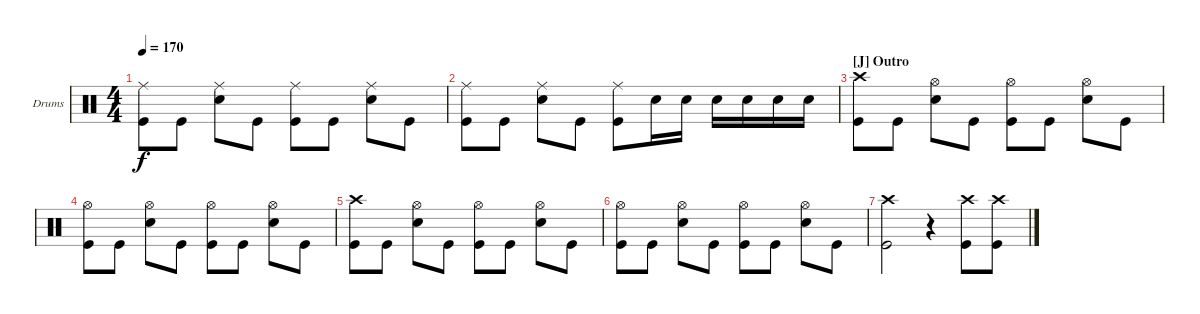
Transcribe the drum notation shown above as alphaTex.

\defaultSystemsLayout 4
\bracketExtendMode groupsimilarinstruments
\firstSystemTrackNameOrientation horizontal
\otherSystemsTrackNameOrientation horizontal
\track ("Benny Horowitz" "Drums") {instrument percussion}
\staff {score}
\articulation defaults
\ts (4 4)
\tempo 170
\clef neutral
\ks c
("Kick (hit)" "Ride (middle)").8{dy f} "Kick (hit)".8 ("Snare (hit) 2" "Ride (middle)").8 "Kick (hit)".8 ("Kick (hit)" "Ride (middle)").8 "Kick (hit)".8 ("Snare (hit) 2" "Ride (middle)").8 "Kick (hit)".8 |
("Kick (hit)" "Ride (middle)").8 "Kick (hit)".8 ("Snare (hit) 2" "Ride (middle)").8 "Kick (hit)".8 ("Kick (hit)" "Ride (middle)").8 "Snare (hit) 2".16 "Snare (hit) 2".16 "Snare (hit) 2".16 "Snare (hit) 2".16 "Snare (hit) 2".16 "Snare (hit) 2".16 |
\section ("J" "Outro")
("Kick (hit)" "Crash high (hit)").8 "Kick (hit)".8 ("Snare (hit) 2" "Hi-Hat (open)").8 "Kick (hit)".8 ("Kick (hit)" "Hi-Hat (open)").8 "Kick (hit)".8 ("Snare (hit) 2" "Hi-Hat (open)").8 "Kick (hit)".8 |
("Kick (hit)" "Hi-Hat (open)").8 "Kick (hit)".8 ("Snare (hit) 2" "Hi-Hat (open)").8 "Kick (hit)".8 ("Kick (hit)" "Hi-Hat (open)").8 "Kick (hit)".8 ("Snare (hit) 2" "Hi-Hat (open)").8 "Kick (hit)".8 |
("Kick (hit)" "Crash high (hit)").8 "Kick (hit)".8 ("Snare (hit) 2" "Hi-Hat (open)").8 "Kick (hit)".8 ("Kick (hit)" "Hi-Hat (open)").8 "Kick (hit)".8 ("Snare (hit) 2" "Hi-Hat (open)").8 "Kick (hit)".8 |
("Kick (hit)" "Hi-Hat (open)").8 "Kick (hit)".8 ("Snare (hit) 2" "Hi-Hat (open)").8 "Kick (hit)".8 ("Kick (hit)" "Hi-Hat (open)").8 "Kick (hit)".8 ("Snare (hit) 2" "Hi-Hat (open)").8 "Kick (hit)".8 |
("Kick (hit)" "Crash high (hit)").2 r.4 ("Kick (hit)" "Crash high (hit)").8 ("Kick (hit)" "Crash high (hit)").8
